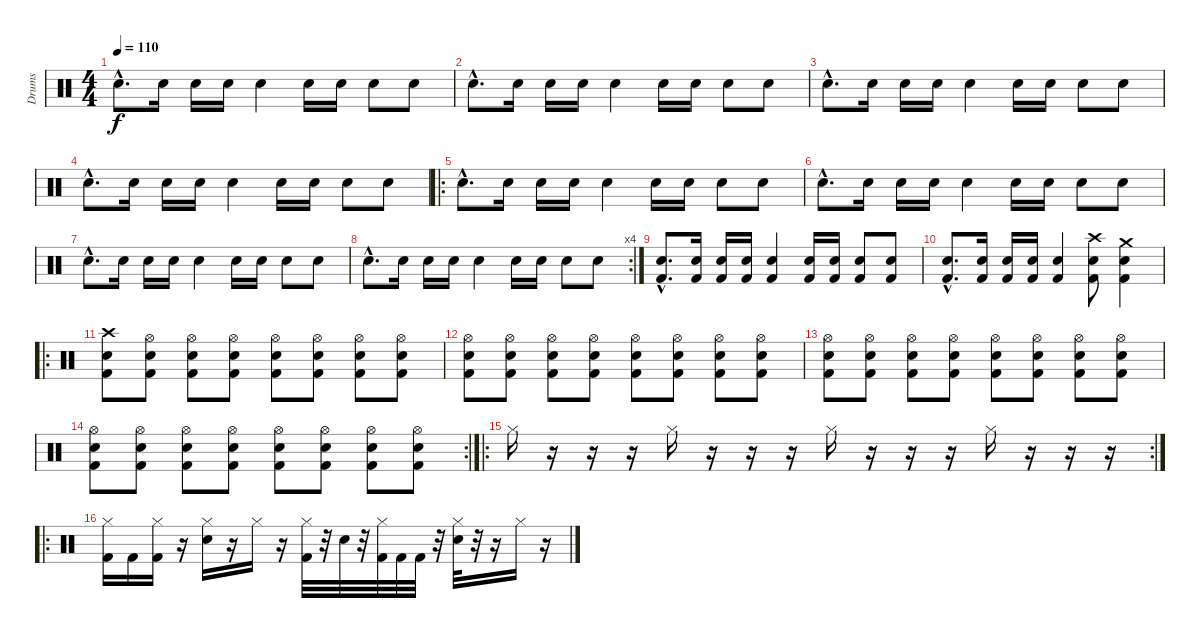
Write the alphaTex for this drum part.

\track ("Drums" "Drums") {instrument percussion}
\staff {score}
\articulation defaults
\ts (4 4)
\tempo 110
\clef neutral
\ks c "Snare (hit) 2"{hac}.8{d dy f volume 10} "Snare (hit) 2".16 "Snare (hit) 2".16 "Snare (hit) 2".16 "Snare (hit) 2".4 "Snare (hit) 2".16 "Snare (hit) 2".16 "Snare (hit) 2".8 "Snare (hit) 2".8
|
"Snare (hit) 2"{hac}.8{d} "Snare (hit) 2".16 "Snare (hit) 2".16 "Snare (hit) 2".16 "Snare (hit) 2".4 "Snare (hit) 2".16 "Snare (hit) 2".16 "Snare (hit) 2".8 "Snare (hit) 2".8 |
"Snare (hit) 2"{hac}.8{d} "Snare (hit) 2".16 "Snare (hit) 2".16 "Snare (hit) 2".16 "Snare (hit) 2".4 "Snare (hit) 2".16 "Snare (hit) 2".16 "Snare (hit) 2".8 "Snare (hit) 2".8 |
"Snare (hit) 2"{hac}.8{d} "Snare (hit) 2".16 "Snare (hit) 2".16 "Snare (hit) 2".16 "Snare (hit) 2".4 "Snare (hit) 2".16 "Snare (hit) 2".16 "Snare (hit) 2".8 "Snare (hit) 2".8 |
\ro "Snare (hit) 2"{hac}.8{d} "Snare (hit) 2".16 "Snare (hit) 2".16 "Snare (hit) 2".16 "Snare (hit) 2".4 "Snare (hit) 2".16 "Snare (hit) 2".16 "Snare (hit) 2".8 "Snare (hit) 2".8
|
"Snare (hit) 2"{hac}.8{d} "Snare (hit) 2".16 "Snare (hit) 2".16 "Snare (hit) 2".16 "Snare (hit) 2".4 "Snare (hit) 2".16 "Snare (hit) 2".16 "Snare (hit) 2".8 "Snare (hit) 2".8 |
"Snare (hit) 2"{hac}.8{d} "Snare (hit) 2".16 "Snare (hit) 2".16 "Snare (hit) 2".16 "Snare (hit) 2".4 "Snare (hit) 2".16 "Snare (hit) 2".16 "Snare (hit) 2".8 "Snare (hit) 2".8 |
\rc 4 "Snare (hit) 2"{hac}.8{d} "Snare (hit) 2".16 "Snare (hit) 2".16 "Snare (hit) 2".16 "Snare (hit) 2".4 "Snare (hit) 2".16 "Snare (hit) 2".16 "Snare (hit) 2".8 "Snare (hit) 2".8
|
("Kick (hit) 2"{hac} "Snare (hit) 2"{hac}).8{d} ("Kick (hit) 2" "Snare (hit) 2").16 ("Kick (hit) 2" "Snare (hit) 2").16 ("Kick (hit) 2" "Snare (hit) 2").16 ("Kick (hit) 2" "Snare (hit) 2").4 ("Kick (hit) 2" "Snare (hit) 2").16 ("Kick (hit) 2" "Snare (hit) 2").16 ("Kick (hit) 2" "Snare (hit) 2").8 ("Kick (hit) 2" "Snare (hit) 2").8 |
("Kick (hit) 2"{hac} "Snare (hit) 2"{hac}).8{d} ("Kick (hit) 2" "Snare (hit) 2").16 ("Kick (hit) 2" "Snare (hit) 2").16 ("Kick (hit) 2" "Snare (hit) 2").16 ("Kick (hit) 2" "Snare (hit) 2").4 ("Crash high (hit)" "Kick (hit) 2" "Snare (hit) 2").8{volume 16} ("Crash medium (hit)" "Kick (hit) 2" "Snare (hit) 2").4 |
\ro
("Crash high (hit)" "Snare (hit) 2" "Kick (hit) 2").8 ("Hi-Hat (open)" "Snare (hit) 2" "Kick (hit) 2").8 ("Hi-Hat (open)" "Snare (hit) 2" "Kick (hit) 2").8 ("Hi-Hat (open)" "Snare (hit) 2" "Kick (hit) 2").8 ("Hi-Hat (open)" "Snare (hit) 2" "Kick (hit) 2").8 ("Hi-Hat (open)" "Snare (hit) 2" "Kick (hit) 2").8 ("Hi-Hat (open)" "Snare (hit) 2" "Kick (hit) 2").8 ("Hi-Hat (open)" "Snare (hit) 2" "Kick (hit) 2").8 |
("Hi-Hat (open)" "Snare (hit) 2" "Kick (hit) 2").8 ("Hi-Hat (open)" "Snare (hit) 2" "Kick (hit) 2").8 ("Hi-Hat (open)" "Snare (hit) 2" "Kick (hit) 2").8 ("Hi-Hat (open)" "Snare (hit) 2" "Kick (hit) 2").8 ("Hi-Hat (open)" "Snare (hit) 2" "Kick (hit) 2").8 ("Hi-Hat (open)" "Snare (hit) 2" "Kick (hit) 2").8 ("Hi-Hat (open)" "Snare (hit) 2" "Kick (hit) 2").8 ("Hi-Hat (open)" "Snare (hit) 2" "Kick (hit) 2").8 |
("Hi-Hat (open)" "Snare (hit) 2" "Kick (hit) 2").8 ("Hi-Hat (open)" "Snare (hit) 2" "Kick (hit) 2").8 ("Hi-Hat (open)" "Snare (hit) 2" "Kick (hit) 2").8 ("Hi-Hat (open)" "Snare (hit) 2" "Kick (hit) 2").8 ("Hi-Hat (open)" "Snare (hit) 2" "Kick (hit) 2").8 ("Hi-Hat (open)" "Snare (hit) 2" "Kick (hit) 2").8 ("Hi-Hat (open)" "Snare (hit) 2" "Kick (hit) 2").8 ("Hi-Hat (open)" "Snare (hit) 2" "Kick (hit) 2").8 |
\rc 2
("Hi-Hat (open)" "Snare (hit) 2" "Kick (hit) 2").8 ("Hi-Hat (open)" "Snare (hit) 2" "Kick (hit) 2").8 ("Hi-Hat (open)" "Snare (hit) 2" "Kick (hit) 2").8 ("Hi-Hat (open)" "Snare (hit) 2" "Kick (hit) 2").8 ("Hi-Hat (open)" "Snare (hit) 2" "Kick (hit) 2").8 ("Hi-Hat (open)" "Snare (hit) 2" "Kick (hit) 2").8 ("Hi-Hat (open)" "Snare (hit) 2" "Kick (hit) 2").8 ("Hi-Hat (open)" "Snare (hit) 2" "Kick (hit) 2").8 |
\ro
\rc 2 "Hi-Hat (closed)".16
r.16 r.16 r.16 "Hi-Hat (closed)".16 r.16 r.16 r.16 "Hi-Hat (closed)".16 r.16 r.16 r.16 "Hi-Hat (closed)".16 r.16 r.16 r.16 |
\ro
("Hi-Hat (closed)" "Kick (hit) 2").16 "Kick (hit) 2".16 ("Hi-Hat (closed)" "Kick (hit) 2").16 r.16 ("Hi-Hat (closed)" "Snare (hit) 2").16 r.16 "Hi-Hat (closed)".16 r.16 ("Hi-Hat (closed)" "Kick (hit) 2").32 r.32 "Snare (hit) 2".32 r.32 ("Hi-Hat (closed)" "Kick (hit) 2").32 "Kick (hit) 2".32 "Kick (hit) 2".32 r.32 ("Hi-Hat (closed)" "Snare (hit) 2").32 r.32 r.16 "Hi-Hat (closed)".16 r.16
